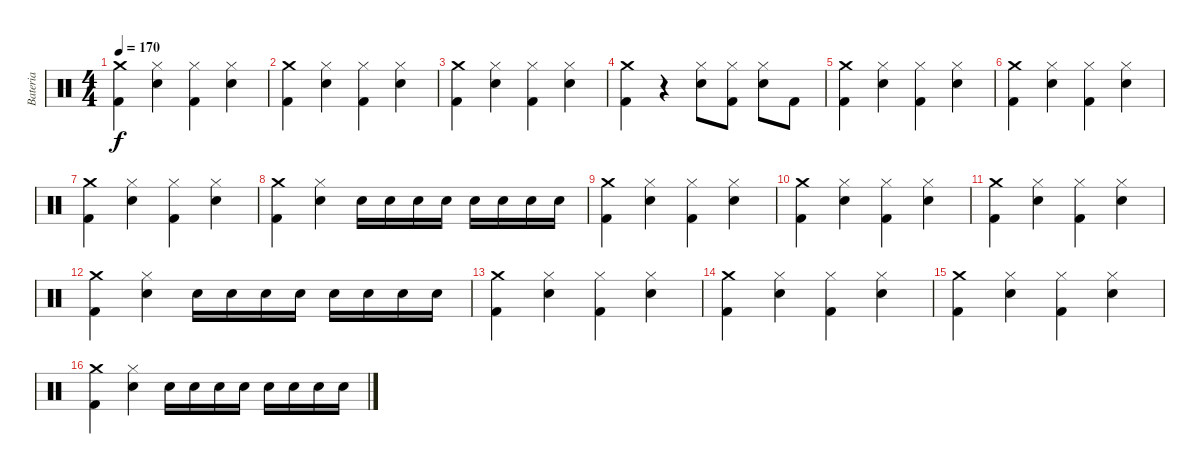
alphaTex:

\track ("Bateria" "Bateria") {instrument percussion}
\staff {score}
\articulation defaults
\ts (4 4)
\tempo 170
\clef neutral
\ks c
("Crash medium (hit)" "Kick (hit) 2").4{dy f} ("Hi-Hat (closed)" "Electric Snare (hit)").4 ("Hi-Hat (closed)" "Kick (hit) 2").4 ("Hi-Hat (closed)" "Electric Snare (hit)").4 |
("Crash medium (hit)" "Kick (hit) 2").4 ("Hi-Hat (closed)" "Electric Snare (hit)").4 ("Hi-Hat (closed)" "Kick (hit) 2").4 ("Hi-Hat (closed)" "Electric Snare (hit)").4 |
("Crash medium (hit)" "Kick (hit) 2").4 ("Hi-Hat (closed)" "Electric Snare (hit)").4 ("Hi-Hat (closed)" "Kick (hit) 2").4 ("Hi-Hat (closed)" "Electric Snare (hit)").4 |
("Crash medium (hit)" "Kick (hit) 2").4 r.4 ("Hi-Hat (closed)" "Electric Snare (hit)").8 ("Hi-Hat (closed)" "Kick (hit) 2").8 ("Hi-Hat (closed)" "Electric Snare (hit)").8 "Kick (hit) 2".8 |
("Crash medium (hit)" "Kick (hit) 2").4 ("Hi-Hat (closed)" "Electric Snare (hit)").4 ("Hi-Hat (closed)" "Kick (hit) 2").4 ("Hi-Hat (closed)" "Electric Snare (hit)").4 |
("Crash medium (hit)" "Kick (hit) 2").4 ("Hi-Hat (closed)" "Electric Snare (hit)").4 ("Hi-Hat (closed)" "Kick (hit) 2").4 ("Hi-Hat (closed)" "Electric Snare (hit)").4 |
("Crash medium (hit)" "Kick (hit) 2").4 ("Hi-Hat (closed)" "Electric Snare (hit)").4 ("Hi-Hat (closed)" "Kick (hit) 2").4 ("Hi-Hat (closed)" "Electric Snare (hit)").4 |
("Crash medium (hit)" "Kick (hit) 2").4 ("Hi-Hat (closed)" "Electric Snare (hit)").4 "Electric Snare (hit)".16 "Electric Snare (hit)".16 "Electric Snare (hit)".16 "Electric Snare (hit)".16 "Electric Snare (hit)".16 "Electric Snare (hit)".16 "Electric Snare (hit)".16 "Electric Snare (hit)".16 |
("Crash medium (hit)" "Kick (hit) 2").4 ("Hi-Hat (closed)" "Electric Snare (hit)").4 ("Hi-Hat (closed)" "Kick (hit) 2").4 ("Hi-Hat (closed)" "Electric Snare (hit)").4 |
("Crash medium (hit)" "Kick (hit) 2").4 ("Hi-Hat (closed)" "Electric Snare (hit)").4 ("Hi-Hat (closed)" "Kick (hit) 2").4 ("Hi-Hat (closed)" "Electric Snare (hit)").4 |
("Crash medium (hit)" "Kick (hit) 2").4 ("Hi-Hat (closed)" "Electric Snare (hit)").4 ("Hi-Hat (closed)" "Kick (hit) 2").4 ("Hi-Hat (closed)" "Electric Snare (hit)").4 |
("Crash medium (hit)" "Kick (hit) 2").4 ("Hi-Hat (closed)" "Electric Snare (hit)").4 "Electric Snare (hit)".16 "Electric Snare (hit)".16 "Electric Snare (hit)".16 "Electric Snare (hit)".16 "Electric Snare (hit)".16 "Electric Snare (hit)".16 "Electric Snare (hit)".16 "Electric Snare (hit)".16 |
("Crash medium (hit)" "Kick (hit) 2").4 ("Hi-Hat (closed)" "Electric Snare (hit)").4 ("Hi-Hat (closed)" "Kick (hit) 2").4 ("Hi-Hat (closed)" "Electric Snare (hit)").4 |
("Crash medium (hit)" "Kick (hit) 2").4 ("Hi-Hat (closed)" "Electric Snare (hit)").4 ("Hi-Hat (closed)" "Kick (hit) 2").4 ("Hi-Hat (closed)" "Electric Snare (hit)").4 |
("Crash medium (hit)" "Kick (hit) 2").4 ("Hi-Hat (closed)" "Electric Snare (hit)").4 ("Hi-Hat (closed)" "Kick (hit) 2").4 ("Hi-Hat (closed)" "Electric Snare (hit)").4 |
("Crash medium (hit)" "Kick (hit) 2").4 ("Hi-Hat (closed)" "Electric Snare (hit)").4 "Electric Snare (hit)".16 "Electric Snare (hit)".16 "Electric Snare (hit)".16 "Electric Snare (hit)".16 "Electric Snare (hit)".16 "Electric Snare (hit)".16 "Electric Snare (hit)".16 "Electric Snare (hit)".16
